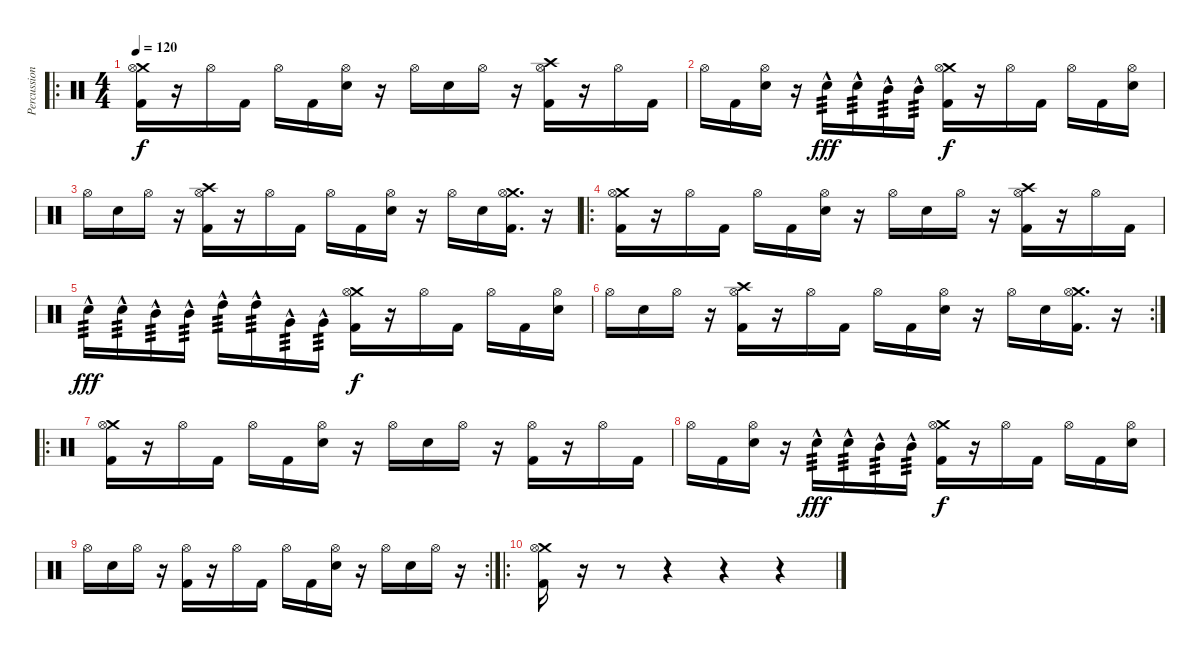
\track ("Percussion" "Percussion") {instrument percussion}
\staff {score}
\articulation defaults
\ro
\ts (4 4)
\tempo 120
\clef neutral
\ks c
("Crash medium (hit)" "Hi-Hat (open)" "Kick (hit) 2").16{dy f} r.16 "Hi-Hat (open)".16 "Kick (hit) 2".16 "Hi-Hat (open)".16 "Kick (hit) 2".16 ("Hi-Hat (open)" "Electric Snare (hit)").16 r.16 "Hi-Hat (open)".16 "Electric Snare (hit)".16 "Hi-Hat (open)".16 r.16 ("Crash high (hit)" "Hi-Hat (open)" "Kick (hit) 2").16 r.16 "Hi-Hat (open)".16 "Kick (hit) 2".16 |
"Hi-Hat (open)".16 "Kick (hit) 2".16 ("Hi-Hat (open)" "Electric Snare (hit)").16 r.16 "Electric Snare (hit)"{hac}.16{tp 3 dy fff} "Electric Snare (hit)"{hac}.16{tp 3} "Mid Tom (hit)"{hac}.16{tp 3} "Mid Tom (hit)"{hac}.16{tp 3} ("Crash medium (hit)" "Hi-Hat (open)" "Kick (hit) 2").16{dy f} r.16 "Hi-Hat (open)".16 "Kick (hit) 2".16 "Hi-Hat (open)".16 "Kick (hit) 2".16 ("Hi-Hat (open)" "Electric Snare (hit)").16 |
"Hi-Hat (open)".16 "Electric Snare (hit)".16 "Hi-Hat (open)".16 r.16 ("Crash high (hit)" "Hi-Hat (open)" "Kick (hit) 2").16 r.16 "Hi-Hat (open)".16 "Kick (hit) 2".16 "Hi-Hat (open)".16 "Kick (hit) 2".16 ("Hi-Hat (open)" "Electric Snare (hit)").16 r.16 "Hi-Hat (open)".16 "Electric Snare (hit)".16 ("Crash medium (hit)" "Hi-Hat (open)" "Kick (hit) 2").16{d} r.16 |
\ro
("Crash medium (hit)" "Hi-Hat (open)" "Kick (hit) 2").16 r.16 "Hi-Hat (open)".16 "Kick (hit) 2".16 "Hi-Hat (open)".16 "Kick (hit) 2".16 ("Hi-Hat (open)" "Electric Snare (hit)").16 r.16 "Hi-Hat (open)".16 "Electric Snare (hit)".16 "Hi-Hat (open)".16 r.16 ("Crash high (hit)" "Hi-Hat (open)" "Kick (hit) 2").16 r.16 "Hi-Hat (open)".16 "Kick (hit) 2".16 |
"Electric Snare (hit)"{hac}.16{tp 3 dy fff} "Electric Snare (hit)"{hac}.16{tp 3} "Mid Tom (hit)"{hac}.16{tp 3} "Mid Tom (hit)"{hac}.16{tp 3} "High Tom (hit)"{hac}.16{tp 3} "High Tom (hit)"{hac}.16{tp 3} "Very Low Tom (hit)"{hac}.16{tp 3} "Very Low Tom (hit)"{hac}.16{tp 3} ("Crash medium (hit)" "Hi-Hat (open)" "Kick (hit) 2").16{dy f} r.16 "Hi-Hat (open)".16 "Kick (hit) 2".16 "Hi-Hat (open)".16 "Kick (hit) 2".16 ("Hi-Hat (open)" "Electric Snare (hit)").16 |
\rc 2 "Hi-Hat (open)".16 "Electric Snare (hit)".16 "Hi-Hat (open)".16
r.16 ("Crash high (hit)" "Hi-Hat (open)" "Kick (hit) 2").16 r.16 "Hi-Hat (open)".16 "Kick (hit) 2".16 "Hi-Hat (open)".16 "Kick (hit) 2".16 ("Hi-Hat (open)" "Electric Snare (hit)").16 r.16 "Hi-Hat (open)".16 "Electric Snare (hit)".16 ("Crash medium (hit)" "Hi-Hat (open)" "Kick (hit) 2").16{d} r.16 |
\ro
("Crash medium (hit)" "Hi-Hat (open)" "Kick (hit) 2").16 r.16 "Hi-Hat (open)".16 "Kick (hit) 2".16 "Hi-Hat (open)".16 "Kick (hit) 2".16 ("Hi-Hat (open)" "Electric Snare (hit)").16 r.16 "Hi-Hat (open)".16 "Electric Snare (hit)".16 "Hi-Hat (open)".16 r.16 ("Hi-Hat (open)" "Kick (hit) 2").16 r.16 "Hi-Hat (open)".16 "Kick (hit) 2".16 |
"Hi-Hat (open)".16 "Kick (hit) 2".16 ("Hi-Hat (open)" "Electric Snare (hit)").16 r.16 "Electric Snare (hit)"{hac}.16{tp 3 dy fff} "Electric Snare (hit)"{hac}.16{tp 3} "Mid Tom (hit)"{hac}.16{tp 3} "Mid Tom (hit)"{hac}.16{tp 3} ("Crash medium (hit)" "Hi-Hat (open)" "Kick (hit) 2").16{dy f} r.16 "Hi-Hat (open)".16 "Kick (hit) 2".16 "Hi-Hat (open)".16 "Kick (hit) 2".16 ("Hi-Hat (open)" "Electric Snare (hit)").16 |
\rc 2 "Hi-Hat (open)".16 "Electric Snare (hit)".16 "Hi-Hat (open)".16
r.16 ("Hi-Hat (open)" "Kick (hit) 2").16 r.16 "Hi-Hat (open)".16 "Kick (hit) 2".16 "Hi-Hat (open)".16 "Kick (hit) 2".16 ("Hi-Hat (open)" "Electric Snare (hit)").16 r.16 "Hi-Hat (open)".16 "Electric Snare (hit)".16 "Hi-Hat (open)".16 r.16 |
\ro
("Crash medium (hit)" "Hi-Hat (open)" "Kick (hit) 2").16 r.16 r.8 r.4 r.4 r.4
